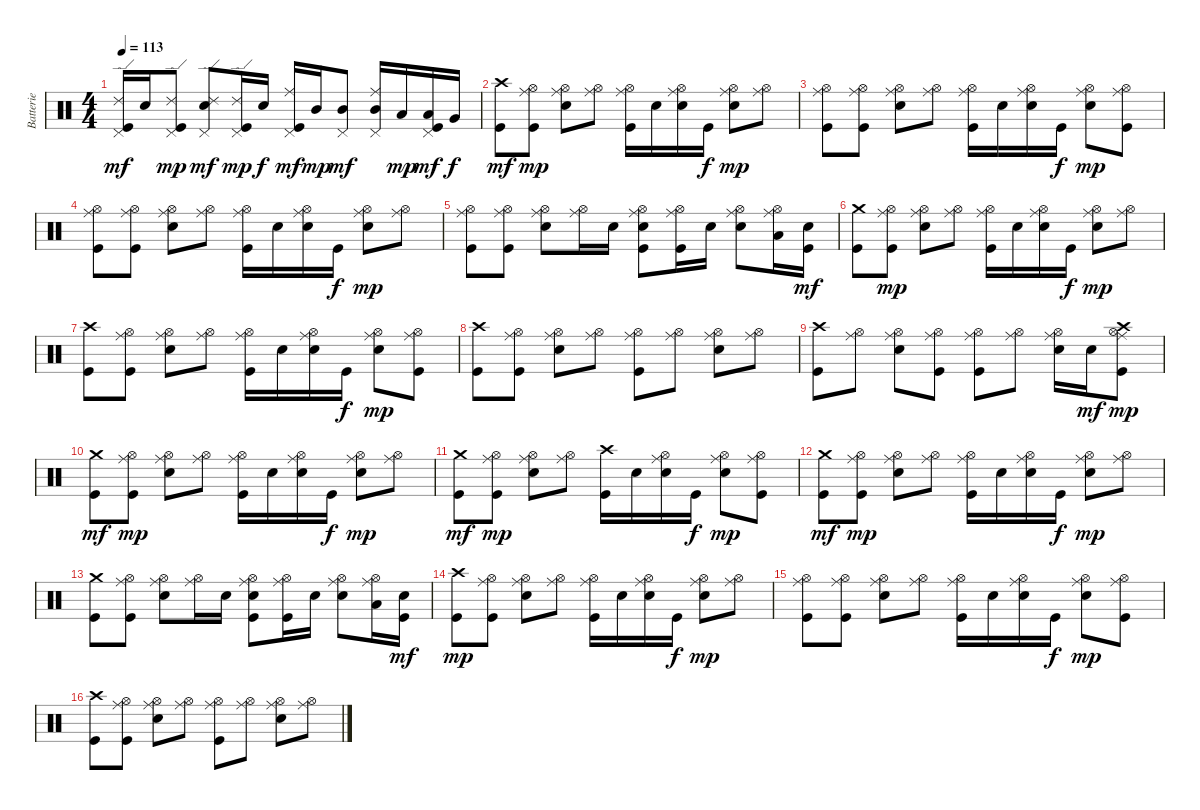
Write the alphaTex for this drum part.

\track ("Batterie" "Batterie") {instrument percussion}
\staff {score}
\articulation defaults
\ts (4 4)
\tempo 113
\clef neutral
\ks c
("Kick (hit)" "Pedal Hi-Hat (hit)" "Ride (edge) 2").16{dy mf} "Electric Snare (hit)".16 ("Kick (hit)" "Pedal Hi-Hat (hit)" "Ride (edge) 2").8{dy mp} ("Electric Snare (hit)" "Pedal Hi-Hat (hit)" "Ride (edge) 2").8{dy mf} ("Kick (hit)" "Pedal Hi-Hat (hit)" "Ride (edge) 2").16{dy mp} "Electric Snare (hit)".16{dy f} ("Kick (hit)" "Pedal Hi-Hat (hit)" "Ride (middle)").16{dy mf} "Mid Tom (hit)".16{dy mp} ("Pedal Hi-Hat (hit)" "Mid Tom (hit)").8{dy mf} ("Pedal Hi-Hat (hit)" "Ride (middle)" "Mid Tom (hit)").16 "Low Tom (hit)".16{dy mp} ("Kick (hit)" "Pedal Hi-Hat (hit)" "Low Tom (hit)").16{dy mf} "Very Low Tom (hit)".16{dy f} |
("Kick (hit)" "Crash high (hit)").8{dy mf} ("Kick (hit)" "Hi-Hat (open)" "Ride (middle)").8{dy mp} ("Electric Snare (hit)" "Hi-Hat (open)" "Ride (middle)").8 ("Hi-Hat (open)" "Ride (middle)").8 ("Kick (hit)" "Hi-Hat (open)" "Ride (middle)").16 "Electric Snare (hit)".16 ("Electric Snare (hit)" "Hi-Hat (open)" "Ride (middle)").16 "Kick (hit)".16{dy f} ("Electric Snare (hit)" "Hi-Hat (open)" "Ride (middle)").8{dy mp} ("Hi-Hat (open)" "Ride (middle)").8 |
("Kick (hit)" "Hi-Hat (open)" "Ride (middle)").8 ("Kick (hit)" "Hi-Hat (open)" "Ride (middle)").8 ("Electric Snare (hit)" "Hi-Hat (open)" "Ride (middle)").8 ("Hi-Hat (open)" "Ride (middle)").8 ("Kick (hit)" "Hi-Hat (open)" "Ride (middle)").16 "Electric Snare (hit)".16 ("Electric Snare (hit)" "Hi-Hat (open)" "Ride (middle)").16 "Kick (hit)".16{dy f} ("Electric Snare (hit)" "Hi-Hat (open)" "Ride (middle)").8{dy mp} ("Kick (hit)" "Hi-Hat (open)" "Ride (middle)").8 |
("Kick (hit)" "Hi-Hat (open)" "Ride (middle)").8 ("Kick (hit)" "Hi-Hat (open)" "Ride (middle)").8 ("Electric Snare (hit)" "Hi-Hat (open)" "Ride (middle)").8 ("Hi-Hat (open)" "Ride (middle)").8 ("Kick (hit)" "Hi-Hat (open)" "Ride (middle)").16 "Electric Snare (hit)".16 ("Electric Snare (hit)" "Hi-Hat (open)" "Ride (middle)").16 "Kick (hit)".16{dy f} ("Electric Snare (hit)" "Hi-Hat (open)" "Ride (middle)").8{dy mp} ("Hi-Hat (open)" "Ride (middle)").8 |
("Kick (hit)" "Hi-Hat (open)" "Ride (middle)").8 ("Kick (hit)" "Hi-Hat (open)" "Ride (middle)").8 ("Electric Snare (hit)" "Hi-Hat (open)" "Ride (middle)").8 ("Hi-Hat (open)" "Ride (middle)").16 "Electric Snare (hit)".16 ("Kick (hit)" "Electric Snare (hit)" "Hi-Hat (open)" "Ride (middle)").8 ("Kick (hit)" "Hi-Hat (open)" "Ride (middle)").16 "Electric Snare (hit)".16 ("Electric Snare (hit)" "Hi-Hat (open)" "Ride (middle)").8 ("Hi-Hat (open)" "Ride (middle)" "Low Tom (hit)").16 ("Kick (hit)" "Electric Snare (hit)").16{dy mf} |
("Kick (hit)" "Crash medium (hit)").8 ("Kick (hit)" "Hi-Hat (open)" "Ride (middle)").8{dy mp} ("Electric Snare (hit)" "Hi-Hat (open)" "Ride (middle)").8 ("Hi-Hat (open)" "Ride (middle)").8 ("Kick (hit)" "Hi-Hat (open)" "Ride (middle)").16 "Electric Snare (hit)".16 ("Electric Snare (hit)" "Hi-Hat (open)" "Ride (middle)").16 "Kick (hit)".16{dy f} ("Electric Snare (hit)" "Hi-Hat (open)" "Ride (middle)").8{dy mp} ("Hi-Hat (open)" "Ride (middle)").8 |
("Kick (hit)" "Crash high (hit)").8 ("Kick (hit)" "Hi-Hat (open)" "Ride (middle)").8 ("Electric Snare (hit)" "Hi-Hat (open)" "Ride (middle)").8 ("Hi-Hat (open)" "Ride (middle)").8 ("Kick (hit)" "Hi-Hat (open)" "Ride (middle)").16 "Electric Snare (hit)".16 ("Electric Snare (hit)" "Hi-Hat (open)" "Ride (middle)").16 "Kick (hit)".16{dy f} ("Electric Snare (hit)" "Hi-Hat (open)" "Ride (middle)").8{dy mp} ("Kick (hit)" "Hi-Hat (open)" "Ride (middle)").8 |
("Kick (hit)" "Crash high (hit)").8 ("Kick (hit)" "Hi-Hat (open)" "Ride (middle)").8 ("Electric Snare (hit)" "Hi-Hat (open)" "Ride (middle)").8 ("Hi-Hat (open)" "Ride (middle)").8 ("Kick (hit)" "Hi-Hat (open)" "Ride (middle)").8 ("Hi-Hat (open)" "Ride (middle)").8 ("Electric Snare (hit)" "Hi-Hat (open)" "Ride (middle)").8 ("Hi-Hat (open)" "Ride (middle)").8 |
("Kick (hit)" "Crash high (hit)").8 ("Hi-Hat (open)" "Ride (middle)").8 ("Electric Snare (hit)" "Hi-Hat (open)" "Ride (middle)").8 ("Kick (hit)" "Hi-Hat (open)" "Ride (middle)").8 ("Kick (hit)" "Hi-Hat (open)" "Ride (middle)").8 ("Hi-Hat (open)" "Ride (middle)").8 ("Electric Snare (hit)" "Hi-Hat (open)" "Ride (middle)").16 "Electric Snare (hit)".16{dy mf} ("Kick (hit)" "Hi-Hat (open)" "Crash high (hit)" "Ride (middle)").8{dy mp} |
("Kick (hit)" "Crash medium (hit)").8{dy mf} ("Kick (hit)" "Hi-Hat (open)" "Ride (middle)").8{dy mp} ("Electric Snare (hit)" "Hi-Hat (open)" "Ride (middle)").8 ("Hi-Hat (open)" "Ride (middle)").8 ("Kick (hit)" "Hi-Hat (open)" "Ride (middle)").16 "Electric Snare (hit)".16 ("Electric Snare (hit)" "Hi-Hat (open)" "Ride (middle)").16 "Kick (hit)".16{dy f} ("Electric Snare (hit)" "Hi-Hat (open)" "Ride (middle)").8{dy mp} ("Hi-Hat (open)" "Ride (middle)").8 |
("Kick (hit)" "Crash medium (hit)").8{dy mf} ("Kick (hit)" "Hi-Hat (open)" "Ride (middle)").8{dy mp} ("Electric Snare (hit)" "Hi-Hat (open)" "Ride (middle)").8 ("Hi-Hat (open)" "Ride (middle)").8 ("Kick (hit)" "Crash high (hit)").16 "Electric Snare (hit)".16 ("Electric Snare (hit)" "Hi-Hat (open)" "Ride (middle)").16 "Kick (hit)".16{dy f} ("Electric Snare (hit)" "Hi-Hat (open)" "Ride (middle)").8{dy mp} ("Kick (hit)" "Hi-Hat (open)" "Ride (middle)").8 |
("Kick (hit)" "Crash medium (hit)").8{dy mf} ("Kick (hit)" "Hi-Hat (open)" "Ride (middle)").8{dy mp} ("Electric Snare (hit)" "Hi-Hat (open)" "Ride (middle)").8 ("Hi-Hat (open)" "Ride (middle)").8 ("Kick (hit)" "Hi-Hat (open)" "Ride (middle)").16 "Electric Snare (hit)".16 ("Electric Snare (hit)" "Hi-Hat (open)" "Ride (middle)").16 "Kick (hit)".16{dy f} ("Electric Snare (hit)" "Hi-Hat (open)" "Ride (middle)").8{dy mp} ("Hi-Hat (open)" "Ride (middle)").8 |
("Kick (hit)" "Crash medium (hit)").8 ("Kick (hit)" "Hi-Hat (open)" "Ride (middle)").8 ("Electric Snare (hit)" "Hi-Hat (open)" "Ride (middle)").8 ("Hi-Hat (open)" "Ride (middle)").16 "Electric Snare (hit)".16 ("Kick (hit)" "Electric Snare (hit)" "Hi-Hat (open)" "Ride (middle)").8 ("Kick (hit)" "Hi-Hat (open)" "Ride (middle)").16 "Electric Snare (hit)".16 ("Electric Snare (hit)" "Hi-Hat (open)" "Ride (middle)").8 ("Hi-Hat (open)" "Ride (middle)" "Low Tom (hit)").16 ("Kick (hit)" "Electric Snare (hit)").16{dy mf} |
("Kick (hit)" "Crash high (hit)").8{dy mp} ("Kick (hit)" "Hi-Hat (open)" "Ride (middle)").8 ("Electric Snare (hit)" "Hi-Hat (open)" "Ride (middle)").8 ("Hi-Hat (open)" "Ride (middle)").8 ("Kick (hit)" "Hi-Hat (open)" "Ride (middle)").16 "Electric Snare (hit)".16 ("Electric Snare (hit)" "Hi-Hat (open)" "Ride (middle)").16 "Kick (hit)".16{dy f} ("Electric Snare (hit)" "Hi-Hat (open)" "Ride (middle)").8{dy mp} ("Hi-Hat (open)" "Ride (middle)").8 |
("Kick (hit)" "Hi-Hat (open)" "Ride (middle)").8 ("Kick (hit)" "Hi-Hat (open)" "Ride (middle)").8 ("Electric Snare (hit)" "Hi-Hat (open)" "Ride (middle)").8 ("Hi-Hat (open)" "Ride (middle)").8 ("Kick (hit)" "Hi-Hat (open)" "Ride (middle)").16 "Electric Snare (hit)".16 ("Electric Snare (hit)" "Hi-Hat (open)" "Ride (middle)").16 "Kick (hit)".16{dy f} ("Electric Snare (hit)" "Hi-Hat (open)" "Ride (middle)").8{dy mp} ("Kick (hit)" "Hi-Hat (open)" "Ride (middle)").8 |
("Kick (hit)" "Crash high (hit)").8 ("Kick (hit)" "Hi-Hat (open)" "Ride (middle)").8 ("Electric Snare (hit)" "Hi-Hat (open)" "Ride (middle)").8 ("Hi-Hat (open)" "Ride (middle)").8 ("Kick (hit)" "Hi-Hat (open)" "Ride (middle)").8 ("Hi-Hat (open)" "Ride (middle)").8 ("Electric Snare (hit)" "Hi-Hat (open)" "Ride (middle)").8 ("Hi-Hat (open)" "Ride (middle)").8
